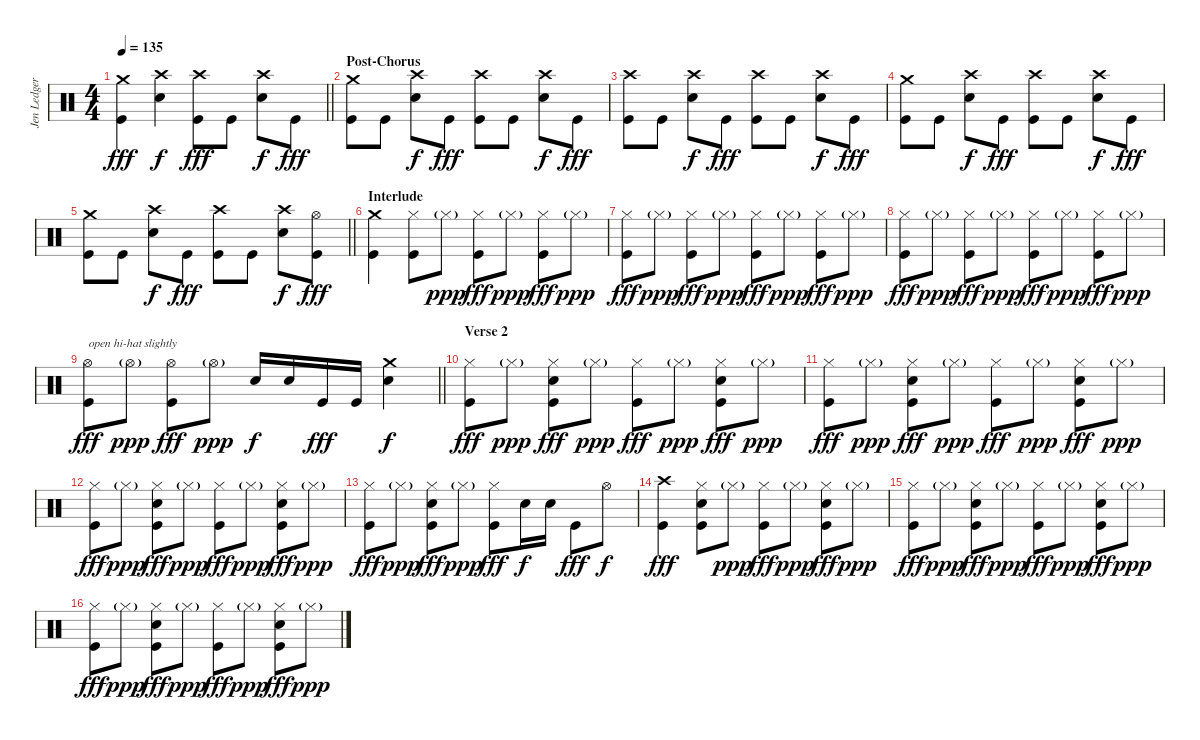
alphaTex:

\track ("Jen Ledger" "Jen Ledger") {instrument percussion}
\staff {score}
\articulation defaults
\ts (4 4)
\tempo 135
\clef neutral
\barLineRight lightlight
\ks c
("Crash medium (hit)" "Kick (hit)").4{dy fff} ("Crash high (hit)" "Snare (hit) 2").4{dy f} ("Crash high (hit)" "Kick (hit)").8{dy fff} "Kick (hit)".8 ("Crash high (hit)" "Snare (hit) 2").8{dy f} "Kick (hit)".8{dy fff} |
\section ("" "Post-Chorus")
("Crash medium (hit)" "Kick (hit)").8 "Kick (hit)".8 ("Crash high (hit)" "Snare (hit) 2").8{dy f} "Kick (hit)".8{dy fff} ("Crash high (hit)" "Kick (hit)").8 "Kick (hit)".8 ("Crash high (hit)" "Snare (hit) 2").8{dy f} "Kick (hit)".8{dy fff} |
("Crash high (hit)" "Kick (hit)").8 "Kick (hit)".8 ("Crash high (hit)" "Snare (hit) 2").8{dy f} "Kick (hit)".8{dy fff} ("Crash high (hit)" "Kick (hit)").8 "Kick (hit)".8 ("Crash high (hit)" "Snare (hit) 2").8{dy f} "Kick (hit)".8{dy fff} |
("Crash medium (hit)" "Kick (hit)").8 "Kick (hit)".8 ("Crash high (hit)" "Snare (hit) 2").8{dy f} "Kick (hit)".8{dy fff} ("Crash high (hit)" "Kick (hit)").8 "Kick (hit)".8 ("Crash high (hit)" "Snare (hit) 2").8{dy f} "Kick (hit)".8{dy fff} |
\barLineRight lightlight
("Crash medium (hit)" "Kick (hit)").8 "Kick (hit)".8 ("Crash high (hit)" "Snare (hit) 2").8{dy f} "Kick (hit)".8{dy fff} ("Crash high (hit)" "Kick (hit)").8 "Kick (hit)".8 ("Crash high (hit)" "Snare (hit) 2").8{dy f} ("Hi-Hat (open)" "Kick (hit)").8{dy fff} |
\section ("" "Interlude")
("Crash medium (hit)" "Kick (hit)").4 ("Hi-Hat (closed)" "Kick (hit)").8 "Hi-Hat (closed)"{g}.8{dy ppp} ("Hi-Hat (closed)" "Kick (hit)").8{dy fff} "Hi-Hat (closed)"{g}.8{dy ppp} ("Hi-Hat (closed)" "Kick (hit)").8{dy fff} "Hi-Hat (closed)"{g}.8{dy ppp} |
("Hi-Hat (closed)" "Kick (hit)").8{dy fff} "Hi-Hat (closed)"{g}.8{dy ppp} ("Hi-Hat (closed)" "Kick (hit)").8{dy fff} "Hi-Hat (closed)"{g}.8{dy ppp} ("Hi-Hat (closed)" "Kick (hit)").8{dy fff} "Hi-Hat (closed)"{g}.8{dy ppp} ("Hi-Hat (closed)" "Kick (hit)").8{dy fff} "Hi-Hat (closed)"{g}.8{dy ppp} |
("Hi-Hat (closed)" "Kick (hit)").8{dy fff} "Hi-Hat (closed)"{g}.8{dy ppp} ("Hi-Hat (closed)" "Kick (hit)").8{dy fff} "Hi-Hat (closed)"{g}.8{dy ppp} ("Hi-Hat (closed)" "Kick (hit)").8{dy fff} "Hi-Hat (closed)"{g}.8{dy ppp} ("Hi-Hat (closed)" "Kick (hit)").8{dy fff} "Hi-Hat (closed)"{g}.8{dy ppp} |
\barLineRight lightlight
("Hi-Hat (open)" "Kick (hit)").8{txt "open hi-hat slightly" dy fff} "Hi-Hat (open)"{g}.8{dy ppp} ("Hi-Hat (open)" "Kick (hit)").8{dy fff} "Hi-Hat (open)"{g}.8{dy ppp} "Snare (hit) 2".16{dy f} "Snare (hit) 2".16 "Kick (hit)".16{dy fff} "Kick (hit)".16 ("Crash medium (hit)" "Snare (hit) 2").4{dy f} |
\section ("" "Verse 2")
("Hi-Hat (closed)" "Kick (hit)").8{dy fff} "Hi-Hat (closed)"{g}.8{dy ppp} ("Hi-Hat (closed)" "Snare (hit) 2" "Kick (hit)").8{dy fff} "Hi-Hat (closed)"{g}.8{dy ppp} ("Hi-Hat (closed)" "Kick (hit)").8{dy fff} "Hi-Hat (closed)"{g}.8{dy ppp} ("Hi-Hat (closed)" "Snare (hit) 2" "Kick (hit)").8{dy fff} "Hi-Hat (closed)"{g}.8{dy ppp} |
("Hi-Hat (closed)" "Kick (hit)").8{dy fff} "Hi-Hat (closed)"{g}.8{dy ppp} ("Hi-Hat (closed)" "Snare (hit) 2" "Kick (hit)").8{dy fff} "Hi-Hat (closed)"{g}.8{dy ppp} ("Hi-Hat (closed)" "Kick (hit)").8{dy fff} "Hi-Hat (closed)"{g}.8{dy ppp} ("Hi-Hat (closed)" "Snare (hit) 2" "Kick (hit)").8{dy fff} "Hi-Hat (closed)"{g}.8{dy ppp} |
("Hi-Hat (closed)" "Kick (hit)").8{dy fff} "Hi-Hat (closed)"{g}.8{dy ppp} ("Hi-Hat (closed)" "Snare (hit) 2" "Kick (hit)").8{dy fff} "Hi-Hat (closed)"{g}.8{dy ppp} ("Hi-Hat (closed)" "Kick (hit)").8{dy fff} "Hi-Hat (closed)"{g}.8{dy ppp} ("Hi-Hat (closed)" "Snare (hit) 2" "Kick (hit)").8{dy fff} "Hi-Hat (closed)"{g}.8{dy ppp} |
("Hi-Hat (closed)" "Kick (hit)").8{dy fff} "Hi-Hat (closed)"{g}.8{dy ppp} ("Hi-Hat (closed)" "Snare (hit) 2" "Kick (hit)").8{dy fff} "Hi-Hat (closed)"{g}.8{dy ppp} ("Hi-Hat (closed)" "Kick (hit)").8{dy fff} "Snare (hit) 2".16{dy f} "Snare (hit) 2".16 "Kick (hit)".8{dy fff} "Hi-Hat (open)".8{dy f} |
("Crash high (hit)" "Kick (hit)").4{dy fff} ("Hi-Hat (closed)" "Snare (hit) 2" "Kick (hit)").8 "Hi-Hat (closed)"{g}.8{dy ppp} ("Hi-Hat (closed)" "Kick (hit)").8{dy fff} "Hi-Hat (closed)"{g}.8{dy ppp} ("Hi-Hat (closed)" "Snare (hit) 2" "Kick (hit)").8{dy fff} "Hi-Hat (closed)"{g}.8{dy ppp} |
("Hi-Hat (closed)" "Kick (hit)").8{dy fff} "Hi-Hat (closed)"{g}.8{dy ppp} ("Hi-Hat (closed)" "Snare (hit) 2" "Kick (hit)").8{dy fff} "Hi-Hat (closed)"{g}.8{dy ppp} ("Hi-Hat (closed)" "Kick (hit)").8{dy fff} "Hi-Hat (closed)"{g}.8{dy ppp} ("Hi-Hat (closed)" "Snare (hit) 2" "Kick (hit)").8{dy fff} "Hi-Hat (closed)"{g}.8{dy ppp} |
("Hi-Hat (closed)" "Kick (hit)").8{dy fff} "Hi-Hat (closed)"{g}.8{dy ppp} ("Hi-Hat (closed)" "Snare (hit) 2" "Kick (hit)").8{dy fff} "Hi-Hat (closed)"{g}.8{dy ppp} ("Hi-Hat (closed)" "Kick (hit)").8{dy fff} "Hi-Hat (closed)"{g}.8{dy ppp} ("Hi-Hat (closed)" "Snare (hit) 2" "Kick (hit)").8{dy fff} "Hi-Hat (closed)"{g}.8{dy ppp}
